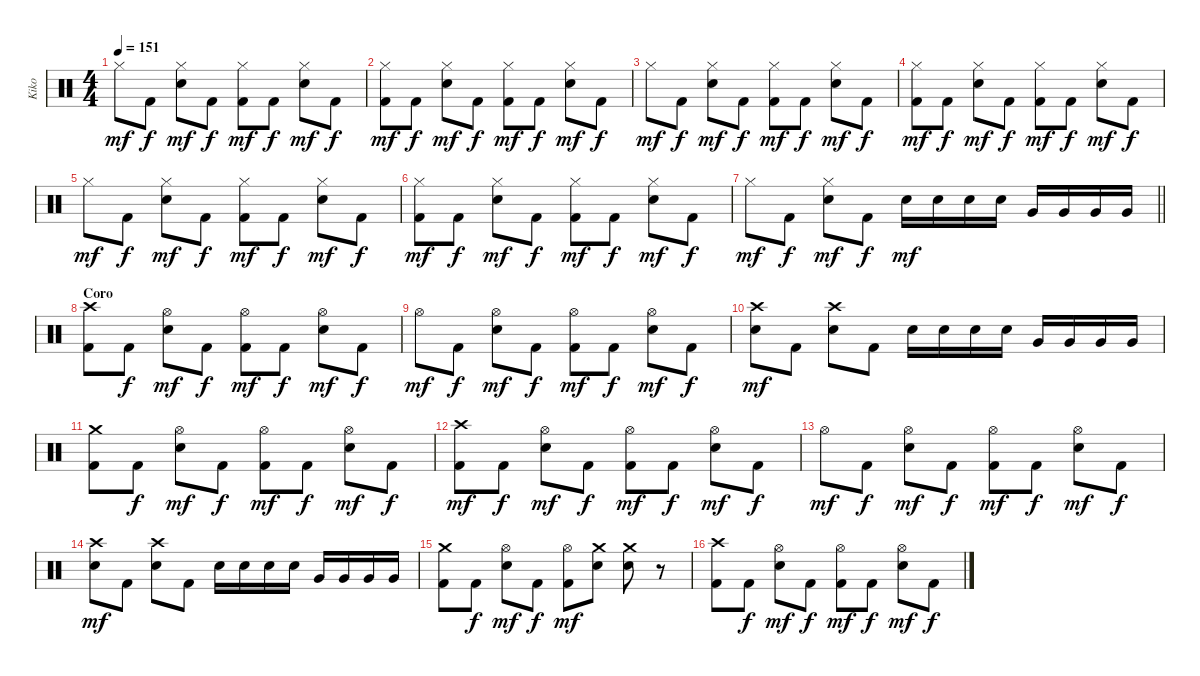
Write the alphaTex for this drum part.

\track ("Kiko" "Kiko") {instrument percussion}
\staff {score}
\articulation defaults
\ts (4 4)
\tempo 151
\clef neutral
\ks c "Hi-Hat (closed)".8{dy mf} "Kick (hit) 2".8{dy f}
("Hi-Hat (closed)" "Electric Snare (hit)").8{dy mf} "Kick (hit) 2".8{dy f} ("Hi-Hat (closed)" "Kick (hit) 2").8{dy mf} "Kick (hit) 2".8{dy f} ("Hi-Hat (closed)" "Electric Snare (hit)").8{dy mf} "Kick (hit) 2".8{dy f} |
("Hi-Hat (closed)" "Kick (hit) 2").8{dy mf} "Kick (hit) 2".8{dy f} ("Hi-Hat (closed)" "Electric Snare (hit)").8{dy mf} "Kick (hit) 2".8{dy f} ("Hi-Hat (closed)" "Kick (hit) 2").8{dy mf} "Kick (hit) 2".8{dy f} ("Hi-Hat (closed)" "Electric Snare (hit)").8{dy mf} "Kick (hit) 2".8{dy f} |
"Hi-Hat (closed)".8{dy mf} "Kick (hit) 2".8{dy f} ("Hi-Hat (closed)" "Electric Snare (hit)").8{dy mf} "Kick (hit) 2".8{dy f} ("Hi-Hat (closed)" "Kick (hit) 2").8{dy mf} "Kick (hit) 2".8{dy f} ("Hi-Hat (closed)" "Electric Snare (hit)").8{dy mf} "Kick (hit) 2".8{dy f} |
("Hi-Hat (closed)" "Kick (hit) 2").8{dy mf} "Kick (hit) 2".8{dy f} ("Hi-Hat (closed)" "Electric Snare (hit)").8{dy mf} "Kick (hit) 2".8{dy f} ("Hi-Hat (closed)" "Kick (hit) 2").8{dy mf} "Kick (hit) 2".8{dy f} ("Hi-Hat (closed)" "Electric Snare (hit)").8{dy mf} "Kick (hit) 2".8{dy f} |
"Hi-Hat (closed)".8{dy mf} "Kick (hit) 2".8{dy f} ("Hi-Hat (closed)" "Electric Snare (hit)").8{dy mf} "Kick (hit) 2".8{dy f} ("Hi-Hat (closed)" "Kick (hit) 2").8{dy mf} "Kick (hit) 2".8{dy f} ("Hi-Hat (closed)" "Electric Snare (hit)").8{dy mf} "Kick (hit) 2".8{dy f} |
("Hi-Hat (closed)" "Kick (hit) 2").8{dy mf} "Kick (hit) 2".8{dy f} ("Hi-Hat (closed)" "Electric Snare (hit)").8{dy mf} "Kick (hit) 2".8{dy f} ("Hi-Hat (closed)" "Kick (hit) 2").8{dy mf} "Kick (hit) 2".8{dy f} ("Hi-Hat (closed)" "Electric Snare (hit)").8{dy mf} "Kick (hit) 2".8{dy f} |
\barLineRight lightlight "Hi-Hat (closed)".8{dy mf} "Kick (hit) 2".8{dy f}
("Hi-Hat (closed)" "Electric Snare (hit)").8{dy mf} "Kick (hit) 2".8{dy f} "Electric Snare (hit)".16{dy mf} "Electric Snare (hit)".16 "Electric Snare (hit)".16 "Electric Snare (hit)".16 "Very Low Tom (hit)".16 "Very Low Tom (hit)".16 "Very Low Tom (hit)".16 "Very Low Tom (hit)".16 |
\section ("" "Coro")
("Crash high (hit)" "Kick (hit) 2").8 "Kick (hit) 2".8{dy f} ("Hi-Hat (open)" "Electric Snare (hit)").8{dy mf} "Kick (hit) 2".8{dy f} ("Hi-Hat (open)" "Kick (hit) 2").8{dy mf} "Kick (hit) 2".8{dy f} ("Hi-Hat (open)" "Electric Snare (hit)").8{dy mf} "Kick (hit) 2".8{dy f} |
"Hi-Hat (open)".8{dy mf} "Kick (hit) 2".8{dy f} ("Hi-Hat (open)" "Electric Snare (hit)").8{dy mf} "Kick (hit) 2".8{dy f} ("Hi-Hat (open)" "Kick (hit) 2").8{dy mf} "Kick (hit) 2".8{dy f} ("Hi-Hat (open)" "Electric Snare (hit)").8{dy mf} "Kick (hit) 2".8{dy f} |
("Crash high (hit)" "Electric Snare (hit)").8{dy mf} "Kick (hit) 2".8 ("Crash high (hit)" "Electric Snare (hit)").8 "Kick (hit) 2".8 "Electric Snare (hit)".16 "Electric Snare (hit)".16 "Electric Snare (hit)".16 "Electric Snare (hit)".16 "Very Low Tom (hit)".16 "Very Low Tom (hit)".16 "Very Low Tom (hit)".16 "Very Low Tom (hit)".16 |
("Crash medium (hit)" "Kick (hit) 2").8 "Kick (hit) 2".8{dy f} ("Hi-Hat (open)" "Electric Snare (hit)").8{dy mf} "Kick (hit) 2".8{dy f} ("Hi-Hat (open)" "Kick (hit) 2").8{dy mf} "Kick (hit) 2".8{dy f} ("Hi-Hat (open)" "Electric Snare (hit)").8{dy mf} "Kick (hit) 2".8{dy f} |
("Crash high (hit)" "Kick (hit) 2").8{dy mf} "Kick (hit) 2".8{dy f} ("Hi-Hat (open)" "Electric Snare (hit)").8{dy mf} "Kick (hit) 2".8{dy f} ("Hi-Hat (open)" "Kick (hit) 2").8{dy mf} "Kick (hit) 2".8{dy f} ("Hi-Hat (open)" "Electric Snare (hit)").8{dy mf} "Kick (hit) 2".8{dy f} |
"Hi-Hat (open)".8{dy mf} "Kick (hit) 2".8{dy f} ("Hi-Hat (open)" "Electric Snare (hit)").8{dy mf} "Kick (hit) 2".8{dy f} ("Hi-Hat (open)" "Kick (hit) 2").8{dy mf} "Kick (hit) 2".8{dy f} ("Hi-Hat (open)" "Electric Snare (hit)").8{dy mf} "Kick (hit) 2".8{dy f} |
("Crash high (hit)" "Electric Snare (hit)").8{dy mf} "Kick (hit) 2".8 ("Crash high (hit)" "Electric Snare (hit)").8 "Kick (hit) 2".8 "Electric Snare (hit)".16 "Electric Snare (hit)".16 "Electric Snare (hit)".16 "Electric Snare (hit)".16 "Very Low Tom (hit)".16 "Very Low Tom (hit)".16 "Very Low Tom (hit)".16 "Very Low Tom (hit)".16 |
("Crash medium (hit)" "Kick (hit) 2").8 "Kick (hit) 2".8{dy f} ("Hi-Hat (open)" "Electric Snare (hit)").8{dy mf} "Kick (hit) 2".8{dy f} ("Hi-Hat (open)" "Kick (hit) 2").8{dy mf} ("Crash medium (hit)" "Electric Snare (hit)").8 ("Crash medium (hit)" "Electric Snare (hit)").8 r.8 |
("Crash high (hit)" "Kick (hit) 2").8 "Kick (hit) 2".8{dy f} ("Hi-Hat (open)" "Electric Snare (hit)").8{dy mf} "Kick (hit) 2".8{dy f} ("Hi-Hat (open)" "Kick (hit) 2").8{dy mf} "Kick (hit) 2".8{dy f} ("Hi-Hat (open)" "Electric Snare (hit)").8{dy mf} "Kick (hit) 2".8{dy f}
